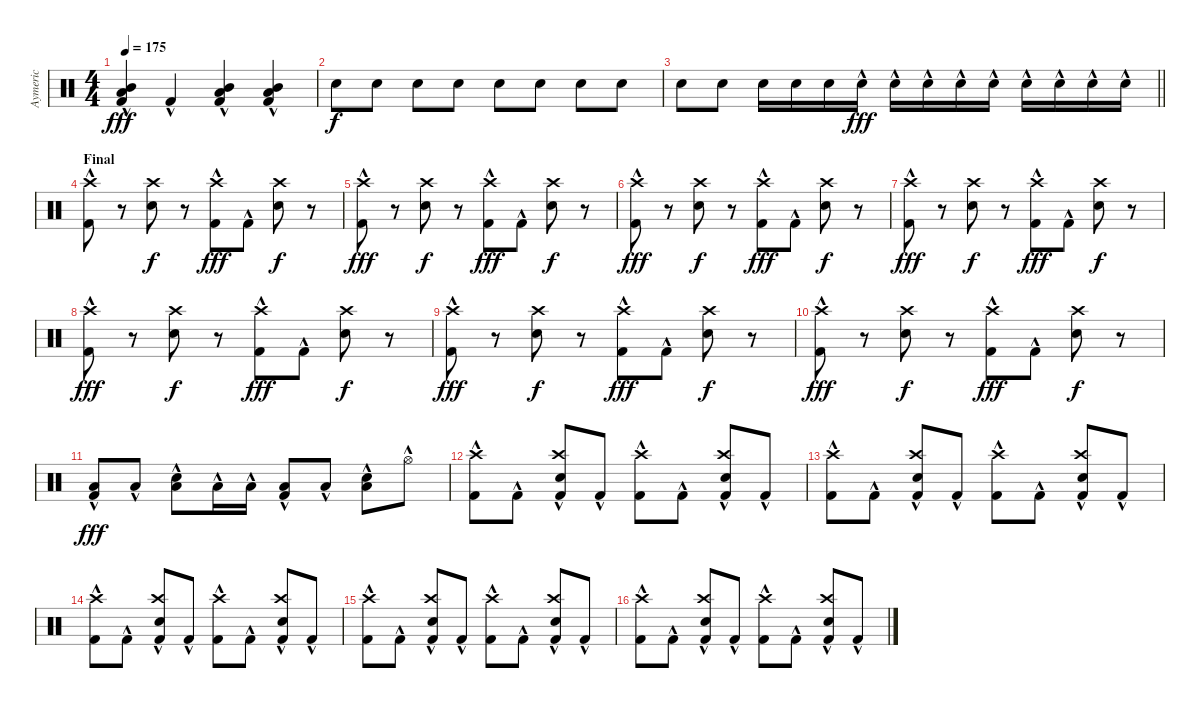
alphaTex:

\track ("Aymeric" "Aymeric") {instrument percussion}
\staff {score}
\articulation defaults
\ts (4 4)
\tempo 175
\clef neutral
\ks c
("Mid Tom (hit)"{hac} "Low Floor Tom (hit)"{hac} "Kick (hit) 2"{hac}).4{dy fff} "Kick (hit) 2"{hac}.4 ("Mid Tom (hit)"{hac} "Low Floor Tom (hit)"{hac} "Kick (hit) 2"{hac}).4 ("Mid Tom (hit)"{hac} "Low Floor Tom (hit)"{hac} "Kick (hit) 2"{hac}).4 |
"Electric Snare (hit)".8{dy f} "Electric Snare (hit)".8 "Electric Snare (hit)".8 "Electric Snare (hit)".8 "Electric Snare (hit)".8 "Electric Snare (hit)".8 "Electric Snare (hit)".8 "Electric Snare (hit)".8 |
\barLineRight lightlight "Electric Snare (hit)".8 "Electric Snare (hit)".8 "Electric Snare (hit)".16 "Electric Snare (hit)".16 "Electric Snare (hit)".16 "Electric Snare (hit)"{hac}.16{dy fff} "Electric Snare (hit)"{hac}.16 "Electric Snare (hit)"{hac}.16 "Electric Snare (hit)"{hac}.16 "Electric Snare (hit)"{hac}.16 "Electric Snare (hit)"{hac}.16 "Electric Snare (hit)"{hac}.16 "Electric Snare (hit)"{hac}.16 "Electric Snare (hit)"{hac}.16
|
\section ("" "Final")
("Crash high (hit)" "Kick (hit) 2"{hac}).8 r.8 ("Crash high (hit)" "Snare (hit) 2").8{dy f} r.8 ("Crash high (hit)" "Kick (hit) 2"{hac}).8{dy fff} "Kick (hit) 2"{hac}.8 ("Crash high (hit)" "Snare (hit) 2").8{dy f} r.8 |
("Crash high (hit)" "Kick (hit) 2"{hac}).8{dy fff} r.8 ("Crash high (hit)" "Snare (hit) 2").8{dy f} r.8 ("Crash high (hit)" "Kick (hit) 2"{hac}).8{dy fff} "Kick (hit) 2"{hac}.8 ("Crash high (hit)" "Snare (hit) 2").8{dy f} r.8 |
("Crash high (hit)" "Kick (hit) 2"{hac}).8{dy fff} r.8 ("Crash high (hit)" "Snare (hit) 2").8{dy f} r.8 ("Crash high (hit)" "Kick (hit) 2"{hac}).8{dy fff} "Kick (hit) 2"{hac}.8 ("Crash high (hit)" "Snare (hit) 2").8{dy f} r.8 |
("Crash high (hit)" "Kick (hit) 2"{hac}).8{dy fff} r.8 ("Crash high (hit)" "Snare (hit) 2").8{dy f} r.8 ("Crash high (hit)" "Kick (hit) 2"{hac}).8{dy fff} "Kick (hit) 2"{hac}.8 ("Crash high (hit)" "Snare (hit) 2").8{dy f} r.8 |
("Crash high (hit)" "Kick (hit) 2"{hac}).8{dy fff} r.8 ("Crash high (hit)" "Snare (hit) 2").8{dy f} r.8 ("Crash high (hit)" "Kick (hit) 2"{hac}).8{dy fff} "Kick (hit) 2"{hac}.8 ("Crash high (hit)" "Snare (hit) 2").8{dy f} r.8 |
("Crash high (hit)" "Kick (hit) 2"{hac}).8{dy fff} r.8 ("Crash high (hit)" "Snare (hit) 2").8{dy f} r.8 ("Crash high (hit)" "Kick (hit) 2"{hac}).8{dy fff} "Kick (hit) 2"{hac}.8 ("Crash high (hit)" "Snare (hit) 2").8{dy f} r.8 |
("Crash high (hit)" "Kick (hit) 2"{hac}).8{dy fff} r.8 ("Crash high (hit)" "Snare (hit) 2").8{dy f} r.8 ("Crash high (hit)" "Kick (hit) 2"{hac}).8{dy fff} "Kick (hit) 2"{hac}.8 ("Crash high (hit)" "Snare (hit) 2").8{dy f} r.8 |
("Low Floor Tom (hit)"{hac} "Kick (hit) 2"{hac}).8{dy fff} "Low Floor Tom (hit)"{hac}.8 ("Low Floor Tom (hit)"{hac} "Snare (hit) 2").8 "Low Floor Tom (hit)"{hac}.16 "Low Floor Tom (hit)"{hac}.16 ("Low Floor Tom (hit)"{hac} "Kick (hit) 2").8 "Low Floor Tom (hit)"{hac}.8 ("Low Floor Tom (hit)"{hac} "Snare (hit) 2").8 "Hi-Hat (open)"{hac}.8 |
("Crash high (hit)" "Kick (hit) 2"{hac}).8 "Kick (hit) 2"{hac}.8 ("Crash high (hit)" "Snare (hit) 2" "Kick (hit) 2"{hac}).8 "Kick (hit) 2"{hac}.8 ("Crash high (hit)" "Kick (hit) 2"{hac}).8 "Kick (hit) 2"{hac}.8 ("Crash high (hit)" "Snare (hit) 2" "Kick (hit) 2"{hac}).8 "Kick (hit) 2"{hac}.8 |
("Crash high (hit)" "Kick (hit) 2"{hac}).8 "Kick (hit) 2"{hac}.8 ("Crash high (hit)" "Snare (hit) 2" "Kick (hit) 2"{hac}).8 "Kick (hit) 2"{hac}.8 ("Crash high (hit)" "Kick (hit) 2"{hac}).8 "Kick (hit) 2"{hac}.8 ("Crash high (hit)" "Snare (hit) 2" "Kick (hit) 2"{hac}).8 "Kick (hit) 2"{hac}.8 |
("Crash high (hit)" "Kick (hit) 2"{hac}).8 "Kick (hit) 2"{hac}.8 ("Crash high (hit)" "Snare (hit) 2" "Kick (hit) 2"{hac}).8 "Kick (hit) 2"{hac}.8 ("Crash high (hit)" "Kick (hit) 2"{hac}).8 "Kick (hit) 2"{hac}.8 ("Crash high (hit)" "Snare (hit) 2" "Kick (hit) 2"{hac}).8 "Kick (hit) 2"{hac}.8 |
("Crash high (hit)" "Kick (hit) 2"{hac}).8 "Kick (hit) 2"{hac}.8 ("Crash high (hit)" "Snare (hit) 2" "Kick (hit) 2"{hac}).8 "Kick (hit) 2"{hac}.8 ("Crash high (hit)" "Kick (hit) 2"{hac}).8 "Kick (hit) 2"{hac}.8 ("Crash high (hit)" "Snare (hit) 2" "Kick (hit) 2"{hac}).8 "Kick (hit) 2"{hac}.8 |
("Crash high (hit)" "Kick (hit) 2"{hac}).8 "Kick (hit) 2"{hac}.8 ("Crash high (hit)" "Snare (hit) 2" "Kick (hit) 2"{hac}).8 "Kick (hit) 2"{hac}.8 ("Crash high (hit)" "Kick (hit) 2"{hac}).8 "Kick (hit) 2"{hac}.8 ("Crash high (hit)" "Snare (hit) 2" "Kick (hit) 2"{hac}).8 "Kick (hit) 2"{hac}.8
